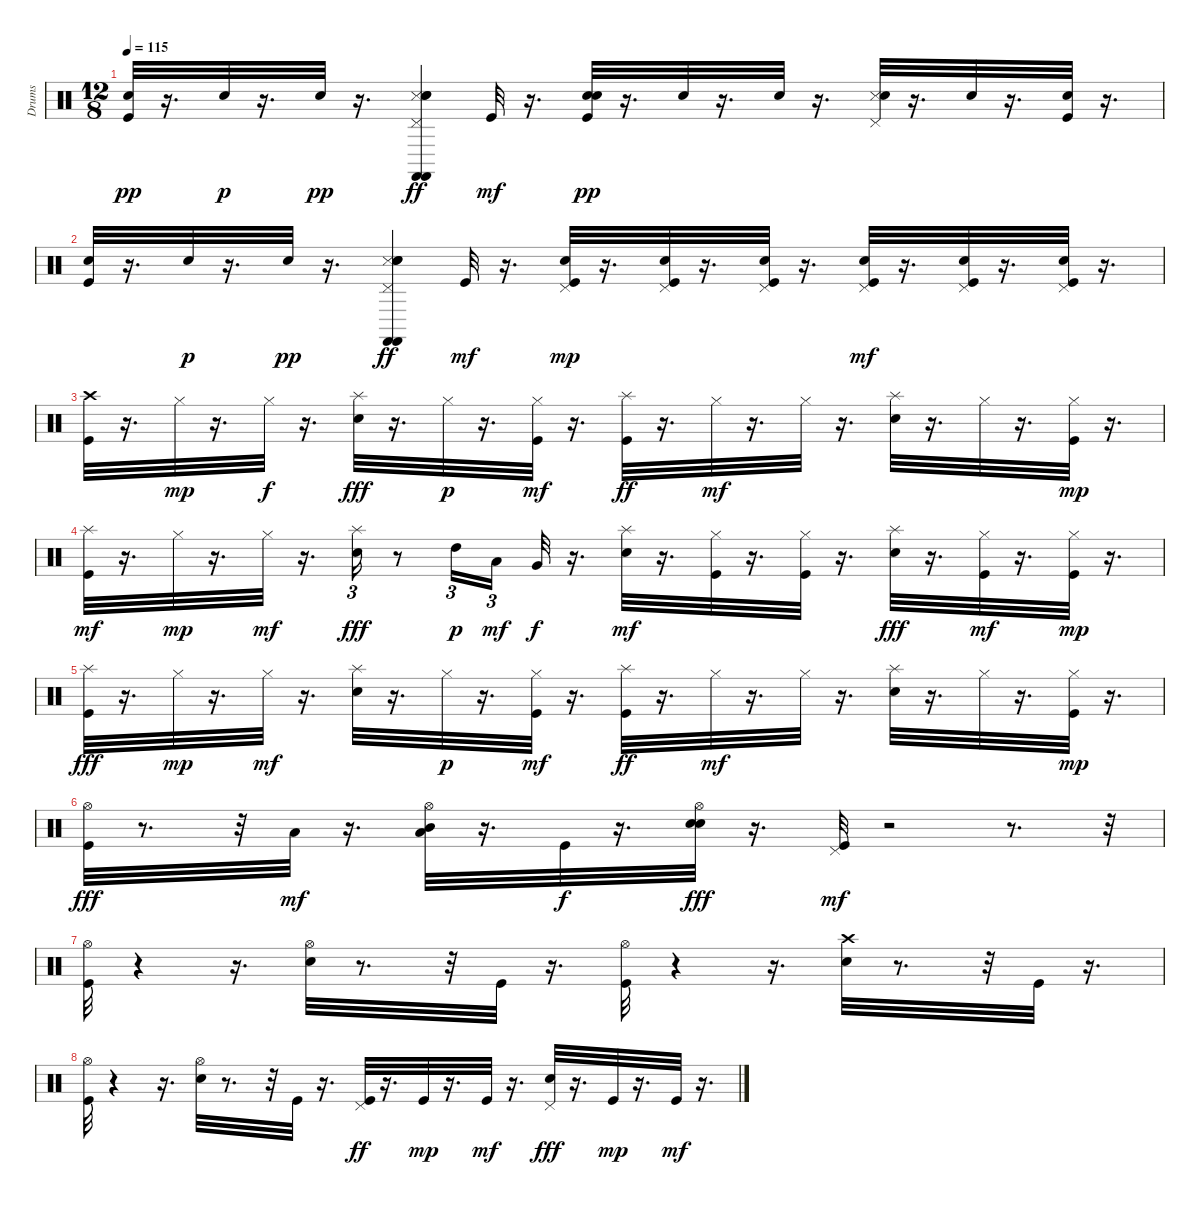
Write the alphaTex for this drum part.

\track ("Drums" "Drums") {instrument percussion}
\staff {score}
\articulation defaults
\ts (12 8)
\tempo 115
\clef neutral
\ks c
("Kick (hit)" "Electric Snare (hit)").32{dy pp} r.16{d} "Snare (hit) 2".32{dy p} r.16{d} "Snare (hit) 2".32{dy pp} r.16{d} ("Castanets (hit)" "Snare (side stick) 3" "Snare (hit) 2" "Electric Snare (hit)" "Pedal Hi-Hat (hit)" "Castanets (hit)").4{dy ff} "Kick (hit)".32{dy mf} r.16{d} ("Kick (hit)" "Snare (hit) 2" "Electric Snare (hit)").32{dy pp} r.16{d} "Snare (hit) 2".32 r.16{d} "Snare (hit) 2".32 r.16{d} ("Snare (side stick) 3" "Electric Snare (hit)" "Pedal Hi-Hat (hit)").32 r.16{d} "Snare (hit) 2".32 r.16{d} ("Kick (hit)" "Snare (hit) 2").32 r.16{d} |
("Kick (hit)" "Electric Snare (hit)").32 r.16{d} "Snare (hit) 2".32{dy p} r.16{d} "Snare (hit) 2".32{dy pp} r.16{d} ("Castanets (hit)" "Snare (side stick) 3" "Snare (hit) 2" "Electric Snare (hit)" "Pedal Hi-Hat (hit)" "Castanets (hit)").4{dy ff} "Kick (hit)".32{dy mf} r.16{d} ("Kick (hit)" "Hand Clap (hit)" "Pedal Hi-Hat (hit)").32{dy mp} r.16{d} ("Kick (hit)" "Hand Clap (hit)" "Pedal Hi-Hat (hit)").32 r.16{d} ("Kick (hit)" "Hand Clap (hit)" "Pedal Hi-Hat (hit)").32 r.16{d} ("Kick (hit)" "Hand Clap (hit)" "Pedal Hi-Hat (hit)").32{dy mf} r.16{d} ("Kick (hit)" "Hand Clap (hit)" "Pedal Hi-Hat (hit)").32 r.16{d} ("Kick (hit)" "Hand Clap (hit)" "Pedal Hi-Hat (hit)").32 r.16{d} |
("Kick (hit)" "Crash high (hit)").32 r.16{d} "Hi-Hat (closed)".32{dy mp} r.16{d} "Hi-Hat (closed)".32{dy f} r.16{d} ("Electric Snare (hit)" "Splash (hit)").32{dy fff} r.16{d} "Hi-Hat (closed)".32{dy p} r.16{d} ("Kick (hit)" "Hi-Hat (closed)").32{dy mf} r.16{d} ("Kick (hit)" "Splash (hit)").32{dy ff} r.16{d} "Hi-Hat (closed)".32{dy mf} r.16{d} "Hi-Hat (closed)".32 r.16{d} ("Electric Snare (hit)" "Splash (hit)").32 r.16{d} "Hi-Hat (closed)".32 r.16{d} ("Kick (hit)" "Hi-Hat (closed)").32{dy mp} r.16{d} |
("Kick (hit)" "Splash (hit)").32{dy mf} r.16{d} "Hi-Hat (closed)".32{dy mp} r.16{d} "Hi-Hat (closed)".32{dy mf} r.16{d} ("Electric Snare (hit)" "Splash (hit)").16{tu (3 2) dy fff} r.8 "High Tom (hit)".16{tu (3 2) dy p} "Low Tom (hit)".16{tu (3 2) dy mf beam splitsecondary} "Very Low Tom (hit)".32{dy f} r.16{d} ("Electric Snare (hit)" "Splash (hit)").32{dy mf} r.16{d} ("Kick (hit)" "Hi-Hat (closed)").32 r.16{d} ("Kick (hit)" "Hi-Hat (closed)").32 r.16{d} ("Electric Snare (hit)" "Splash (hit)").32{dy fff} r.16{d} ("Kick (hit)" "Hi-Hat (closed)").32{dy mf} r.16{d} ("Kick (hit)" "Hi-Hat (closed)").32{dy mp} r.16{d} |
("Kick (hit)" "Splash (hit)").32{dy fff} r.16{d} "Hi-Hat (closed)".32{dy mp} r.16{d} "Hi-Hat (closed)".32{dy mf} r.16{d} ("Electric Snare (hit)" "Splash (hit)").32 r.16{d} "Hi-Hat (closed)".32{dy p} r.16{d} ("Kick (hit)" "Hi-Hat (closed)").32{dy mf} r.16{d} ("Kick (hit)" "Splash (hit)").32{dy ff} r.16{d} "Hi-Hat (closed)".32{dy mf} r.16{d} "Hi-Hat (closed)".32 r.16{d} ("Electric Snare (hit)" "Splash (hit)").32 r.16{d} "Hi-Hat (closed)".32 r.16{d} ("Kick (hit)" "Hi-Hat (closed)").32{dy mp} r.16{d} |
("Kick (hit)" "Hi-Hat (open)").32{dy fff} r.8{d} r.32 "Low Tom (hit)".32{dy mf} r.16{d} ("Mid Tom (hit)" "Low Tom (hit)" "Hi-Hat (open)").32 r.16{d} "Kick (hit)".32{dy f} r.16{d} ("Snare (hit) 2" "Electric Snare (hit)" "Hi-Hat (open)").32{dy fff} r.16{d} ("Kick (hit)" "Pedal Hi-Hat (hit)").32{dy mf} r.2 r.8{d} r.32 |
("Kick (hit)" "Hi-Hat (open)").32 r.4 r.16{d} ("Electric Snare (hit)" "Hi-Hat (open)").32 r.8{d} r.32 "Kick (hit)".32 r.16{d} ("Kick (hit)" "Hi-Hat (open)").32 r.4 r.16{d} ("Electric Snare (hit)" "Crash high (hit)").32 r.8{d} r.32 "Kick (hit)".32 r.16{d} |
("Kick (hit)" "Hi-Hat (open)").32 r.4 r.16{d} ("Electric Snare (hit)" "Hi-Hat (open)").32 r.8{d} r.32 "Kick (hit)".32 r.16{d} ("Kick (hit)" "Pedal Hi-Hat (hit)").32{dy ff} r.16{d} "Kick (hit)".32{dy mp} r.16{d} "Kick (hit)".32{dy mf} r.16{d} ("Electric Snare (hit)" "Pedal Hi-Hat (hit)").32{dy fff} r.16{d} "Kick (hit)".32{dy mp} r.16{d} "Kick (hit)".32{dy mf} r.16{d}
